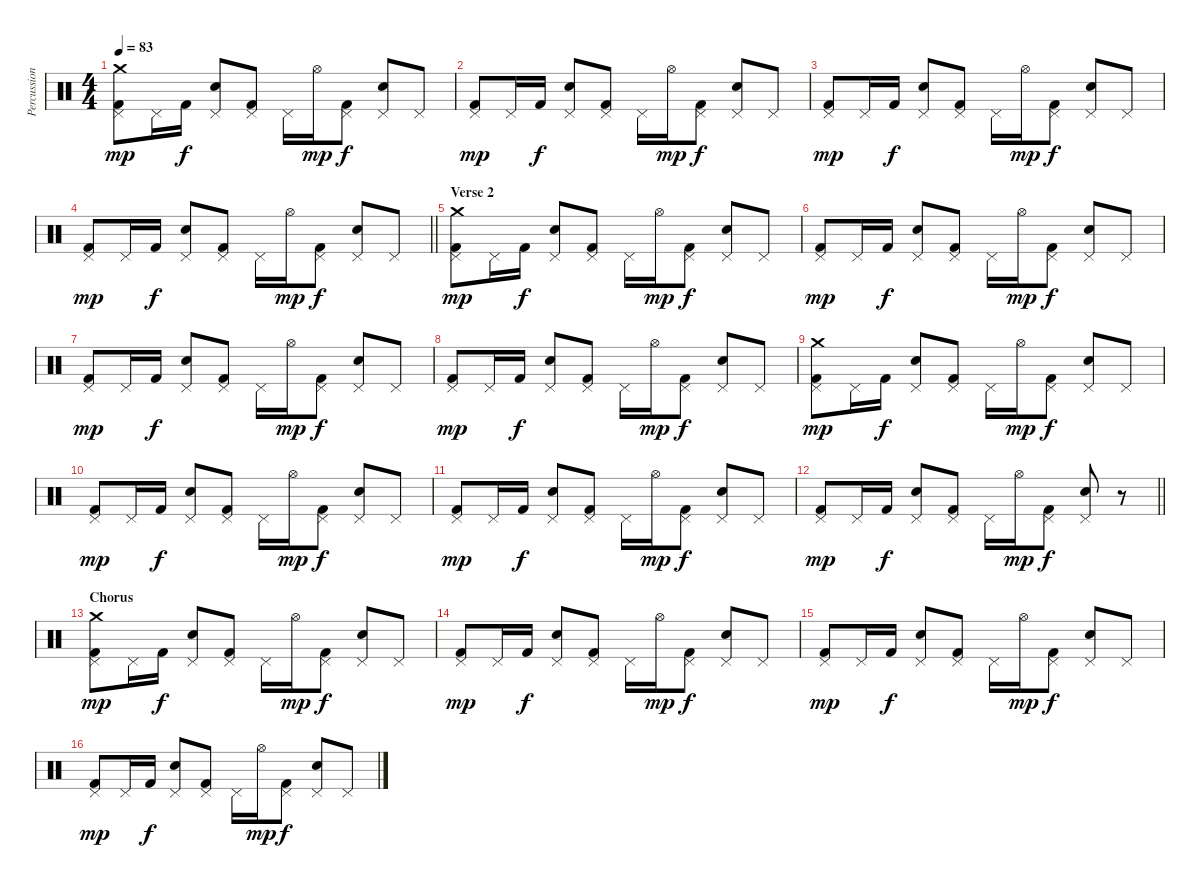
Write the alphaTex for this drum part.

\track ("Percussion" "Percussion") {instrument percussion}
\staff {score}
\articulation defaults
\ts (4 4)
\tempo 83
\clef neutral
\ks c
("Pedal Hi-Hat (hit)" "Kick (hit) 2" "Crash medium (hit)").8{dy mp} "Pedal Hi-Hat (hit)".16 "Kick (hit) 2".16{dy f} ("Pedal Hi-Hat (hit)" "Electric Snare (hit)").8 ("Pedal Hi-Hat (hit)" "Kick (hit) 2").8 "Pedal Hi-Hat (hit)".16 "Hi-Hat (open)".16{dy mp} ("Pedal Hi-Hat (hit)" "Kick (hit) 2").8{dy f} ("Pedal Hi-Hat (hit)" "Electric Snare (hit)").8 "Pedal Hi-Hat (hit)".8 |
("Pedal Hi-Hat (hit)" "Kick (hit) 2").8{dy mp} "Pedal Hi-Hat (hit)".16 "Kick (hit) 2".16{dy f} ("Pedal Hi-Hat (hit)" "Electric Snare (hit)").8 ("Pedal Hi-Hat (hit)" "Kick (hit) 2").8 "Pedal Hi-Hat (hit)".16 "Hi-Hat (open)".16{dy mp} ("Pedal Hi-Hat (hit)" "Kick (hit) 2").8{dy f} ("Pedal Hi-Hat (hit)" "Electric Snare (hit)").8 "Pedal Hi-Hat (hit)".8 |
("Pedal Hi-Hat (hit)" "Kick (hit) 2").8{dy mp} "Pedal Hi-Hat (hit)".16 "Kick (hit) 2".16{dy f} ("Pedal Hi-Hat (hit)" "Electric Snare (hit)").8 ("Pedal Hi-Hat (hit)" "Kick (hit) 2").8 "Pedal Hi-Hat (hit)".16 "Hi-Hat (open)".16{dy mp} ("Pedal Hi-Hat (hit)" "Kick (hit) 2").8{dy f} ("Pedal Hi-Hat (hit)" "Electric Snare (hit)").8 "Pedal Hi-Hat (hit)".8 |
\barLineRight lightlight
("Pedal Hi-Hat (hit)" "Kick (hit) 2").8{dy mp} "Pedal Hi-Hat (hit)".16 "Kick (hit) 2".16{dy f} ("Pedal Hi-Hat (hit)" "Electric Snare (hit)").8 ("Pedal Hi-Hat (hit)" "Kick (hit) 2").8 "Pedal Hi-Hat (hit)".16 "Hi-Hat (open)".16{dy mp} ("Pedal Hi-Hat (hit)" "Kick (hit) 2").8{dy f} ("Pedal Hi-Hat (hit)" "Electric Snare (hit)").8 "Pedal Hi-Hat (hit)".8 |
\section ("" "Verse 2")
("Pedal Hi-Hat (hit)" "Kick (hit) 2" "Crash medium (hit)").8{dy mp} "Pedal Hi-Hat (hit)".16 "Kick (hit) 2".16{dy f} ("Pedal Hi-Hat (hit)" "Electric Snare (hit)").8 ("Pedal Hi-Hat (hit)" "Kick (hit) 2").8 "Pedal Hi-Hat (hit)".16 "Hi-Hat (open)".16{dy mp} ("Pedal Hi-Hat (hit)" "Kick (hit) 2").8{dy f} ("Pedal Hi-Hat (hit)" "Electric Snare (hit)").8 "Pedal Hi-Hat (hit)".8 |
("Pedal Hi-Hat (hit)" "Kick (hit) 2").8{dy mp} "Pedal Hi-Hat (hit)".16 "Kick (hit) 2".16{dy f} ("Pedal Hi-Hat (hit)" "Electric Snare (hit)").8 ("Pedal Hi-Hat (hit)" "Kick (hit) 2").8 "Pedal Hi-Hat (hit)".16 "Hi-Hat (open)".16{dy mp} ("Pedal Hi-Hat (hit)" "Kick (hit) 2").8{dy f} ("Pedal Hi-Hat (hit)" "Electric Snare (hit)").8 "Pedal Hi-Hat (hit)".8 |
("Pedal Hi-Hat (hit)" "Kick (hit) 2").8{dy mp} "Pedal Hi-Hat (hit)".16 "Kick (hit) 2".16{dy f} ("Pedal Hi-Hat (hit)" "Electric Snare (hit)").8 ("Pedal Hi-Hat (hit)" "Kick (hit) 2").8 "Pedal Hi-Hat (hit)".16 "Hi-Hat (open)".16{dy mp} ("Pedal Hi-Hat (hit)" "Kick (hit) 2").8{dy f} ("Pedal Hi-Hat (hit)" "Electric Snare (hit)").8 "Pedal Hi-Hat (hit)".8 |
("Pedal Hi-Hat (hit)" "Kick (hit) 2").8{dy mp} "Pedal Hi-Hat (hit)".16 "Kick (hit) 2".16{dy f} ("Pedal Hi-Hat (hit)" "Electric Snare (hit)").8 ("Pedal Hi-Hat (hit)" "Kick (hit) 2").8 "Pedal Hi-Hat (hit)".16 "Hi-Hat (open)".16{dy mp} ("Pedal Hi-Hat (hit)" "Kick (hit) 2").8{dy f} ("Pedal Hi-Hat (hit)" "Electric Snare (hit)").8 "Pedal Hi-Hat (hit)".8 |
("Pedal Hi-Hat (hit)" "Kick (hit) 2" "Crash medium (hit)").8{dy mp} "Pedal Hi-Hat (hit)".16 "Kick (hit) 2".16{dy f} ("Pedal Hi-Hat (hit)" "Electric Snare (hit)").8 ("Pedal Hi-Hat (hit)" "Kick (hit) 2").8 "Pedal Hi-Hat (hit)".16 "Hi-Hat (open)".16{dy mp} ("Pedal Hi-Hat (hit)" "Kick (hit) 2").8{dy f} ("Pedal Hi-Hat (hit)" "Electric Snare (hit)").8 "Pedal Hi-Hat (hit)".8 |
("Pedal Hi-Hat (hit)" "Kick (hit) 2").8{dy mp} "Pedal Hi-Hat (hit)".16 "Kick (hit) 2".16{dy f} ("Pedal Hi-Hat (hit)" "Electric Snare (hit)").8 ("Pedal Hi-Hat (hit)" "Kick (hit) 2").8 "Pedal Hi-Hat (hit)".16 "Hi-Hat (open)".16{dy mp} ("Pedal Hi-Hat (hit)" "Kick (hit) 2").8{dy f} ("Pedal Hi-Hat (hit)" "Electric Snare (hit)").8 "Pedal Hi-Hat (hit)".8 |
("Pedal Hi-Hat (hit)" "Kick (hit) 2").8{dy mp} "Pedal Hi-Hat (hit)".16 "Kick (hit) 2".16{dy f} ("Pedal Hi-Hat (hit)" "Electric Snare (hit)").8 ("Pedal Hi-Hat (hit)" "Kick (hit) 2").8 "Pedal Hi-Hat (hit)".16 "Hi-Hat (open)".16{dy mp} ("Pedal Hi-Hat (hit)" "Kick (hit) 2").8{dy f} ("Pedal Hi-Hat (hit)" "Electric Snare (hit)").8 "Pedal Hi-Hat (hit)".8 |
\barLineRight lightlight
("Pedal Hi-Hat (hit)" "Kick (hit) 2").8{dy mp} "Pedal Hi-Hat (hit)".16 "Kick (hit) 2".16{dy f} ("Pedal Hi-Hat (hit)" "Electric Snare (hit)").8 ("Pedal Hi-Hat (hit)" "Kick (hit) 2").8 "Pedal Hi-Hat (hit)".16 "Hi-Hat (open)".16{dy mp} ("Pedal Hi-Hat (hit)" "Kick (hit) 2").8{dy f} ("Pedal Hi-Hat (hit)" "Electric Snare (hit)").8 r.8 |
\section ("" "Chorus")
("Pedal Hi-Hat (hit)" "Kick (hit) 2" "Crash medium (hit)").8{dy mp} "Pedal Hi-Hat (hit)".16 "Kick (hit) 2".16{dy f} ("Pedal Hi-Hat (hit)" "Electric Snare (hit)").8 ("Pedal Hi-Hat (hit)" "Kick (hit) 2").8 "Pedal Hi-Hat (hit)".16 "Hi-Hat (open)".16{dy mp} ("Pedal Hi-Hat (hit)" "Kick (hit) 2").8{dy f} ("Pedal Hi-Hat (hit)" "Electric Snare (hit)").8 "Pedal Hi-Hat (hit)".8 |
("Pedal Hi-Hat (hit)" "Kick (hit) 2").8{dy mp} "Pedal Hi-Hat (hit)".16 "Kick (hit) 2".16{dy f} ("Pedal Hi-Hat (hit)" "Electric Snare (hit)").8 ("Pedal Hi-Hat (hit)" "Kick (hit) 2").8 "Pedal Hi-Hat (hit)".16 "Hi-Hat (open)".16{dy mp} ("Pedal Hi-Hat (hit)" "Kick (hit) 2").8{dy f} ("Pedal Hi-Hat (hit)" "Electric Snare (hit)").8 "Pedal Hi-Hat (hit)".8 |
("Pedal Hi-Hat (hit)" "Kick (hit) 2").8{dy mp} "Pedal Hi-Hat (hit)".16 "Kick (hit) 2".16{dy f} ("Pedal Hi-Hat (hit)" "Electric Snare (hit)").8 ("Pedal Hi-Hat (hit)" "Kick (hit) 2").8 "Pedal Hi-Hat (hit)".16 "Hi-Hat (open)".16{dy mp} ("Pedal Hi-Hat (hit)" "Kick (hit) 2").8{dy f} ("Pedal Hi-Hat (hit)" "Electric Snare (hit)").8 "Pedal Hi-Hat (hit)".8 |
("Pedal Hi-Hat (hit)" "Kick (hit) 2").8{dy mp} "Pedal Hi-Hat (hit)".16 "Kick (hit) 2".16{dy f} ("Pedal Hi-Hat (hit)" "Electric Snare (hit)").8 ("Pedal Hi-Hat (hit)" "Kick (hit) 2").8 "Pedal Hi-Hat (hit)".16 "Hi-Hat (open)".16{dy mp} ("Pedal Hi-Hat (hit)" "Kick (hit) 2").8{dy f} ("Pedal Hi-Hat (hit)" "Electric Snare (hit)").8 "Pedal Hi-Hat (hit)".8
